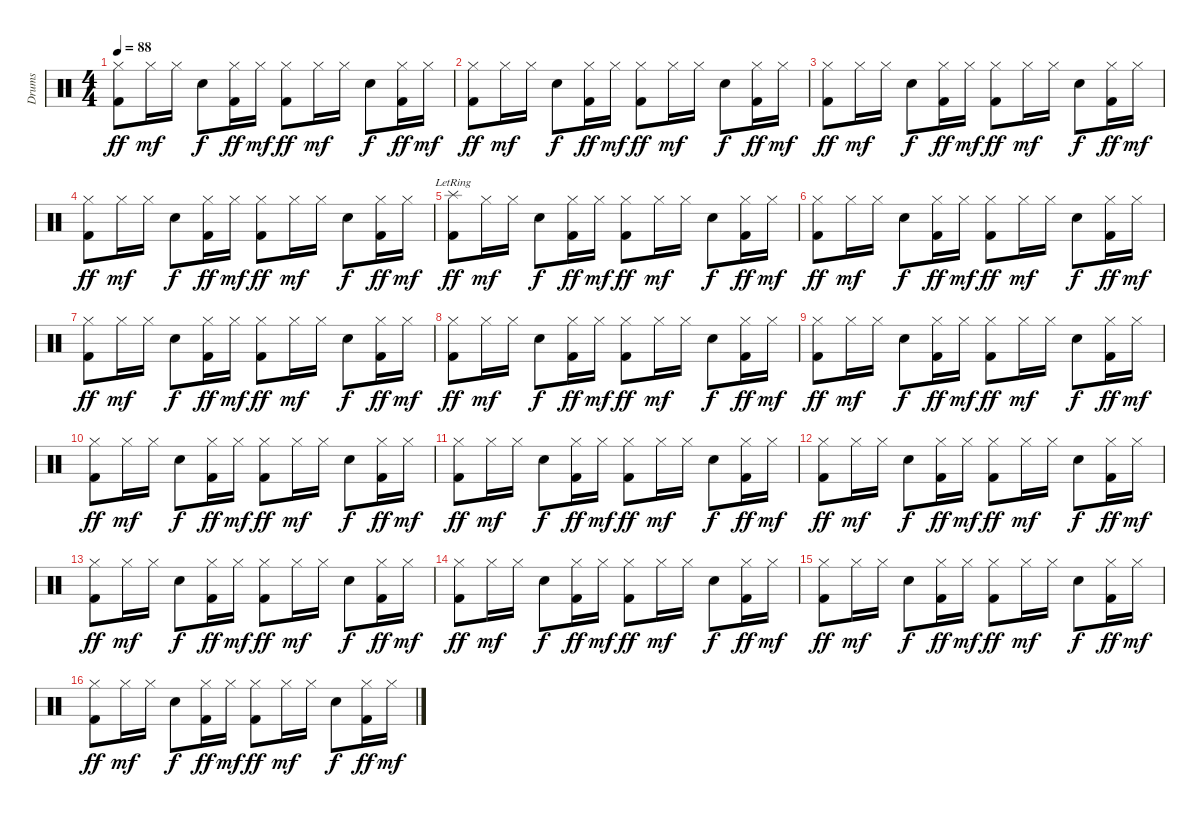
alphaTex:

\track ("Drums" "Drums") {instrument percussion}
\staff {score}
\articulation defaults
\ts (4 4)
\tempo 88
\clef neutral
\ks c
("Hi-Hat (closed)" "Kick (hit) 2").8{dy ff} "Hi-Hat (closed)".16{dy mf} "Hi-Hat (closed)".16 "Snare (hit) 2".8{dy f} ("Hi-Hat (closed)" "Kick (hit) 2").16{dy ff} "Hi-Hat (closed)".16{dy mf} ("Hi-Hat (closed)" "Kick (hit) 2").8{dy ff} "Hi-Hat (closed)".16{dy mf} "Hi-Hat (closed)".16 "Snare (hit) 2".8{dy f} ("Hi-Hat (closed)" "Kick (hit) 2").16{dy ff} "Hi-Hat (closed)".16{dy mf} |
("Hi-Hat (closed)" "Kick (hit) 2").8{dy ff} "Hi-Hat (closed)".16{dy mf} "Hi-Hat (closed)".16 "Snare (hit) 2".8{dy f} ("Hi-Hat (closed)" "Kick (hit) 2").16{dy ff} "Hi-Hat (closed)".16{dy mf} ("Hi-Hat (closed)" "Kick (hit) 2").8{dy ff} "Hi-Hat (closed)".16{dy mf} "Hi-Hat (closed)".16 "Snare (hit) 2".8{dy f} ("Hi-Hat (closed)" "Kick (hit) 2").16{dy ff} "Hi-Hat (closed)".16{dy mf} |
("Hi-Hat (closed)" "Kick (hit) 2").8{dy ff} "Hi-Hat (closed)".16{dy mf} "Hi-Hat (closed)".16 "Snare (hit) 2".8{dy f} ("Hi-Hat (closed)" "Kick (hit) 2").16{dy ff} "Hi-Hat (closed)".16{dy mf} ("Hi-Hat (closed)" "Kick (hit) 2").8{dy ff} "Hi-Hat (closed)".16{dy mf} "Hi-Hat (closed)".16 "Snare (hit) 2".8{dy f} ("Hi-Hat (closed)" "Kick (hit) 2").16{dy ff} "Hi-Hat (closed)".16{dy mf} |
("Hi-Hat (closed)" "Kick (hit) 2").8{dy ff} "Hi-Hat (closed)".16{dy mf} "Hi-Hat (closed)".16 "Snare (hit) 2".8{dy f} ("Hi-Hat (closed)" "Kick (hit) 2").16{dy ff} "Hi-Hat (closed)".16{dy mf} ("Hi-Hat (closed)" "Kick (hit) 2").8{dy ff} "Hi-Hat (closed)".16{dy mf} "Hi-Hat (closed)".16 "Snare (hit) 2".8{dy f} ("Hi-Hat (closed)" "Kick (hit) 2").16{dy ff} "Hi-Hat (closed)".16{dy mf} |
("Splash (hit)"{lr} "Kick (hit) 2").8{dy ff} "Hi-Hat (closed)".16{dy mf} "Hi-Hat (closed)".16 "Snare (hit) 2".8{dy f} ("Hi-Hat (closed)" "Kick (hit) 2").16{dy ff} "Hi-Hat (closed)".16{dy mf} ("Hi-Hat (closed)" "Kick (hit) 2").8{dy ff} "Hi-Hat (closed)".16{dy mf} "Hi-Hat (closed)".16 "Snare (hit) 2".8{dy f} ("Hi-Hat (closed)" "Kick (hit) 2").16{dy ff} "Hi-Hat (closed)".16{dy mf} |
("Hi-Hat (closed)" "Kick (hit) 2").8{dy ff} "Hi-Hat (closed)".16{dy mf} "Hi-Hat (closed)".16 "Snare (hit) 2".8{dy f} ("Hi-Hat (closed)" "Kick (hit) 2").16{dy ff} "Hi-Hat (closed)".16{dy mf} ("Hi-Hat (closed)" "Kick (hit) 2").8{dy ff} "Hi-Hat (closed)".16{dy mf} "Hi-Hat (closed)".16 "Snare (hit) 2".8{dy f} ("Hi-Hat (closed)" "Kick (hit) 2").16{dy ff} "Hi-Hat (closed)".16{dy mf} |
("Hi-Hat (closed)" "Kick (hit) 2").8{dy ff} "Hi-Hat (closed)".16{dy mf} "Hi-Hat (closed)".16 "Snare (hit) 2".8{dy f} ("Hi-Hat (closed)" "Kick (hit) 2").16{dy ff} "Hi-Hat (closed)".16{dy mf} ("Hi-Hat (closed)" "Kick (hit) 2").8{dy ff} "Hi-Hat (closed)".16{dy mf} "Hi-Hat (closed)".16 "Snare (hit) 2".8{dy f} ("Hi-Hat (closed)" "Kick (hit) 2").16{dy ff} "Hi-Hat (closed)".16{dy mf} |
("Hi-Hat (closed)" "Kick (hit) 2").8{dy ff} "Hi-Hat (closed)".16{dy mf} "Hi-Hat (closed)".16 "Snare (hit) 2".8{dy f} ("Hi-Hat (closed)" "Kick (hit) 2").16{dy ff} "Hi-Hat (closed)".16{dy mf} ("Hi-Hat (closed)" "Kick (hit) 2").8{dy ff} "Hi-Hat (closed)".16{dy mf} "Hi-Hat (closed)".16 "Snare (hit) 2".8{dy f} ("Hi-Hat (closed)" "Kick (hit) 2").16{dy ff} "Hi-Hat (closed)".16{dy mf} |
("Hi-Hat (closed)" "Kick (hit) 2").8{dy ff} "Hi-Hat (closed)".16{dy mf} "Hi-Hat (closed)".16 "Snare (hit) 2".8{dy f} ("Hi-Hat (closed)" "Kick (hit) 2").16{dy ff} "Hi-Hat (closed)".16{dy mf} ("Hi-Hat (closed)" "Kick (hit) 2").8{dy ff} "Hi-Hat (closed)".16{dy mf} "Hi-Hat (closed)".16 "Snare (hit) 2".8{dy f} ("Hi-Hat (closed)" "Kick (hit) 2").16{dy ff} "Hi-Hat (closed)".16{dy mf} |
("Hi-Hat (closed)" "Kick (hit) 2").8{dy ff} "Hi-Hat (closed)".16{dy mf} "Hi-Hat (closed)".16 "Snare (hit) 2".8{dy f} ("Hi-Hat (closed)" "Kick (hit) 2").16{dy ff} "Hi-Hat (closed)".16{dy mf} ("Hi-Hat (closed)" "Kick (hit) 2").8{dy ff} "Hi-Hat (closed)".16{dy mf} "Hi-Hat (closed)".16 "Snare (hit) 2".8{dy f} ("Hi-Hat (closed)" "Kick (hit) 2").16{dy ff} "Hi-Hat (closed)".16{dy mf} |
("Hi-Hat (closed)" "Kick (hit) 2").8{dy ff} "Hi-Hat (closed)".16{dy mf} "Hi-Hat (closed)".16 "Snare (hit) 2".8{dy f} ("Hi-Hat (closed)" "Kick (hit) 2").16{dy ff} "Hi-Hat (closed)".16{dy mf} ("Hi-Hat (closed)" "Kick (hit) 2").8{dy ff} "Hi-Hat (closed)".16{dy mf} "Hi-Hat (closed)".16 "Snare (hit) 2".8{dy f} ("Hi-Hat (closed)" "Kick (hit) 2").16{dy ff} "Hi-Hat (closed)".16{dy mf} |
("Hi-Hat (closed)" "Kick (hit) 2").8{dy ff} "Hi-Hat (closed)".16{dy mf} "Hi-Hat (closed)".16 "Snare (hit) 2".8{dy f} ("Hi-Hat (closed)" "Kick (hit) 2").16{dy ff} "Hi-Hat (closed)".16{dy mf} ("Hi-Hat (closed)" "Kick (hit) 2").8{dy ff} "Hi-Hat (closed)".16{dy mf} "Hi-Hat (closed)".16 "Snare (hit) 2".8{dy f} ("Hi-Hat (closed)" "Kick (hit) 2").16{dy ff} "Hi-Hat (closed)".16{dy mf} |
("Hi-Hat (closed)" "Kick (hit) 2").8{dy ff} "Hi-Hat (closed)".16{dy mf} "Hi-Hat (closed)".16 "Snare (hit) 2".8{dy f} ("Hi-Hat (closed)" "Kick (hit) 2").16{dy ff} "Hi-Hat (closed)".16{dy mf} ("Hi-Hat (closed)" "Kick (hit) 2").8{dy ff} "Hi-Hat (closed)".16{dy mf} "Hi-Hat (closed)".16 "Snare (hit) 2".8{dy f} ("Hi-Hat (closed)" "Kick (hit) 2").16{dy ff} "Hi-Hat (closed)".16{dy mf} |
("Hi-Hat (closed)" "Kick (hit) 2").8{dy ff} "Hi-Hat (closed)".16{dy mf} "Hi-Hat (closed)".16 "Snare (hit) 2".8{dy f} ("Hi-Hat (closed)" "Kick (hit) 2").16{dy ff} "Hi-Hat (closed)".16{dy mf} ("Hi-Hat (closed)" "Kick (hit) 2").8{dy ff} "Hi-Hat (closed)".16{dy mf} "Hi-Hat (closed)".16 "Snare (hit) 2".8{dy f} ("Hi-Hat (closed)" "Kick (hit) 2").16{dy ff} "Hi-Hat (closed)".16{dy mf} |
("Hi-Hat (closed)" "Kick (hit) 2").8{dy ff} "Hi-Hat (closed)".16{dy mf} "Hi-Hat (closed)".16 "Snare (hit) 2".8{dy f} ("Hi-Hat (closed)" "Kick (hit) 2").16{dy ff} "Hi-Hat (closed)".16{dy mf} ("Hi-Hat (closed)" "Kick (hit) 2").8{dy ff} "Hi-Hat (closed)".16{dy mf} "Hi-Hat (closed)".16 "Snare (hit) 2".8{dy f} ("Hi-Hat (closed)" "Kick (hit) 2").16{dy ff} "Hi-Hat (closed)".16{dy mf} |
("Hi-Hat (closed)" "Kick (hit) 2").8{dy ff} "Hi-Hat (closed)".16{dy mf} "Hi-Hat (closed)".16 "Snare (hit) 2".8{dy f} ("Hi-Hat (closed)" "Kick (hit) 2").16{dy ff} "Hi-Hat (closed)".16{dy mf} ("Hi-Hat (closed)" "Kick (hit) 2").8{dy ff} "Hi-Hat (closed)".16{dy mf} "Hi-Hat (closed)".16 "Snare (hit) 2".8{dy f} ("Hi-Hat (closed)" "Kick (hit) 2").16{dy ff} "Hi-Hat (closed)".16{dy mf}
